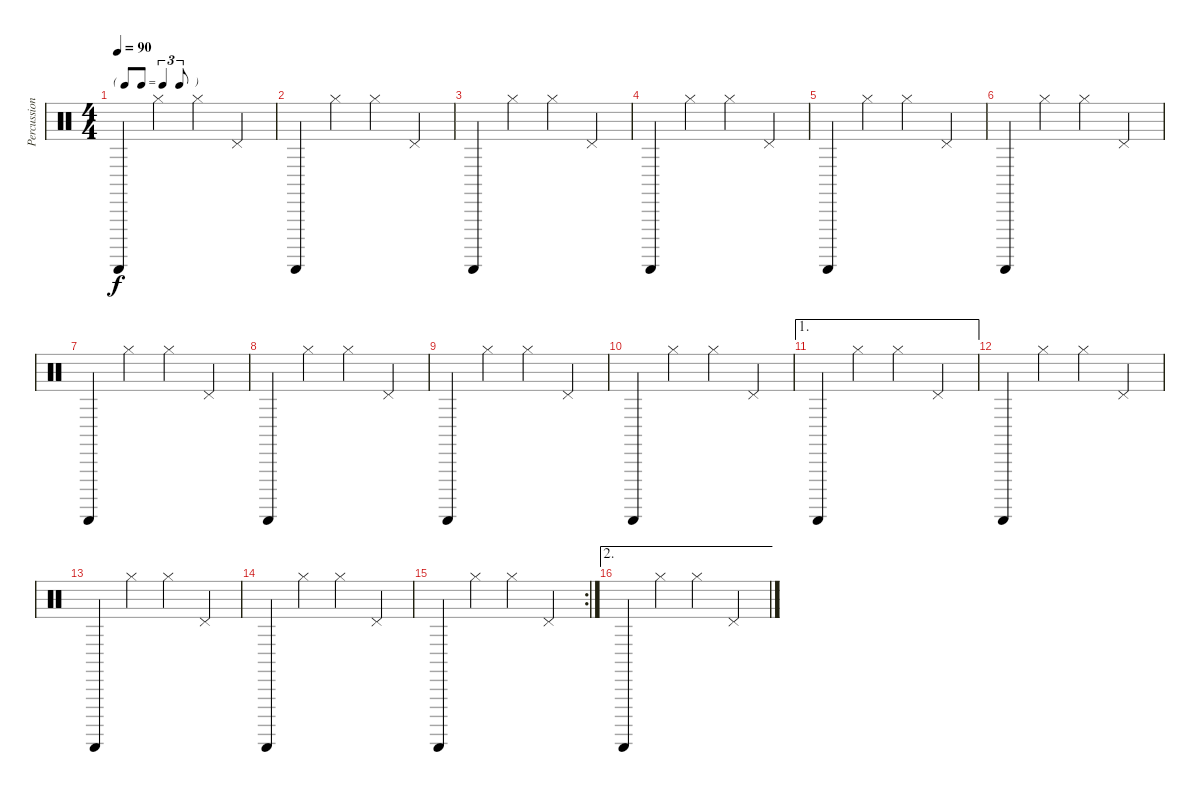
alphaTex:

\track ("Percussion" "Percussion") {instrument percussion}
\staff {score}
\articulation defaults
\ts (4 4)
\tf triplet8th
\tempo 90
\clef neutral
\ks c "Guiro (scrap-return)".4{dy f} "Hi-Hat (closed)".4 "Hi-Hat (closed)".4 "Pedal Hi-Hat (hit)".4
|
"Guiro (scrap-return)".4 "Hi-Hat (closed)".4 "Hi-Hat (closed)".4 "Pedal Hi-Hat (hit)".4 |
"Guiro (scrap-return)".4 "Hi-Hat (closed)".4 "Hi-Hat (closed)".4 "Pedal Hi-Hat (hit)".4 |
"Guiro (scrap-return)".4 "Hi-Hat (closed)".4 "Hi-Hat (closed)".4 "Pedal Hi-Hat (hit)".4 |
"Guiro (scrap-return)".4 "Hi-Hat (closed)".4 "Hi-Hat (closed)".4 "Pedal Hi-Hat (hit)".4 |
"Guiro (scrap-return)".4 "Hi-Hat (closed)".4 "Hi-Hat (closed)".4 "Pedal Hi-Hat (hit)".4 |
"Guiro (scrap-return)".4 "Hi-Hat (closed)".4 "Hi-Hat (closed)".4 "Pedal Hi-Hat (hit)".4 |
"Guiro (scrap-return)".4 "Hi-Hat (closed)".4 "Hi-Hat (closed)".4 "Pedal Hi-Hat (hit)".4 |
"Guiro (scrap-return)".4 "Hi-Hat (closed)".4 "Hi-Hat (closed)".4 "Pedal Hi-Hat (hit)".4 |
"Guiro (scrap-return)".4 "Hi-Hat (closed)".4 "Hi-Hat (closed)".4 "Pedal Hi-Hat (hit)".4 |
\ae 1 "Guiro (scrap-return)".4 "Hi-Hat (closed)".4 "Hi-Hat (closed)".4 "Pedal Hi-Hat (hit)".4
|
"Guiro (scrap-return)".4 "Hi-Hat (closed)".4 "Hi-Hat (closed)".4 "Pedal Hi-Hat (hit)".4 |
"Guiro (scrap-return)".4 "Hi-Hat (closed)".4 "Hi-Hat (closed)".4 "Pedal Hi-Hat (hit)".4 |
"Guiro (scrap-return)".4 "Hi-Hat (closed)".4 "Hi-Hat (closed)".4 "Pedal Hi-Hat (hit)".4 |
\rc 2 "Guiro (scrap-return)".4 "Hi-Hat (closed)".4 "Hi-Hat (closed)".4 "Pedal Hi-Hat (hit)".4
|
\ae 2 "Guiro (scrap-return)".4 "Hi-Hat (closed)".4 "Hi-Hat (closed)".4 "Pedal Hi-Hat (hit)".4
